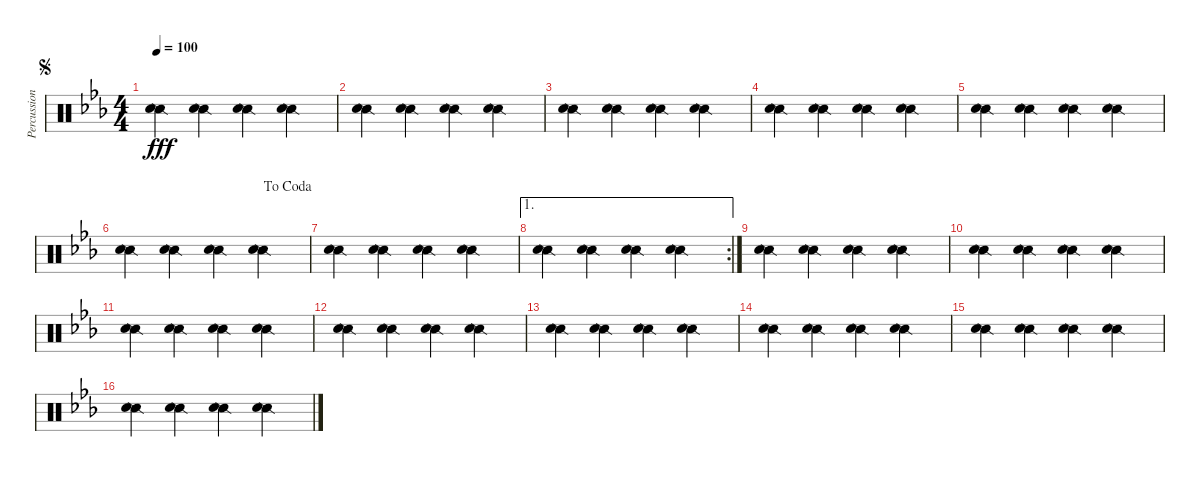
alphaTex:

\track ("Percussions" "Percussion") {instrument percussion}
\staff {score}
\articulation defaults
\ts (4 4)
\jump segno
\tempo 100
\clef neutral
\ks eb
("Snare (side stick) 2" "Snare (hit) 2").4{dy fff} ("Snare (side stick) 2" "Snare (hit) 2").4 ("Snare (side stick) 2" "Snare (hit) 2").4 ("Snare (side stick) 2" "Snare (hit) 2").4 |
("Snare (side stick) 2" "Snare (hit) 2").4 ("Snare (side stick) 2" "Snare (hit) 2").4 ("Snare (side stick) 2" "Snare (hit) 2").4 ("Snare (side stick) 2" "Snare (hit) 2").4 |
("Snare (side stick) 2" "Snare (hit) 2").4 ("Snare (side stick) 2" "Snare (hit) 2").4 ("Snare (side stick) 2" "Snare (hit) 2").4 ("Snare (side stick) 2" "Snare (hit) 2").4 |
("Snare (side stick) 2" "Snare (hit) 2").4 ("Snare (side stick) 2" "Snare (hit) 2").4 ("Snare (side stick) 2" "Snare (hit) 2").4 ("Snare (side stick) 2" "Snare (hit) 2").4 |
("Snare (side stick) 2" "Snare (hit) 2").4 ("Snare (side stick) 2" "Snare (hit) 2").4 ("Snare (side stick) 2" "Snare (hit) 2").4 ("Snare (side stick) 2" "Snare (hit) 2").4 |
\jump dacoda
("Snare (side stick) 2" "Snare (hit) 2").4 ("Snare (side stick) 2" "Snare (hit) 2").4 ("Snare (side stick) 2" "Snare (hit) 2").4 ("Snare (side stick) 2" "Snare (hit) 2").4 |
("Snare (side stick) 2" "Snare (hit) 2").4 ("Snare (side stick) 2" "Snare (hit) 2").4 ("Snare (side stick) 2" "Snare (hit) 2").4 ("Snare (side stick) 2" "Snare (hit) 2").4 |
\ae 1
\rc 2
("Snare (side stick) 2" "Snare (hit) 2").4 ("Snare (side stick) 2" "Snare (hit) 2").4 ("Snare (side stick) 2" "Snare (hit) 2").4 ("Snare (side stick) 2" "Snare (hit) 2").4 |
("Snare (side stick) 2" "Snare (hit) 2").4 ("Snare (side stick) 2" "Snare (hit) 2").4 ("Snare (side stick) 2" "Snare (hit) 2").4 ("Snare (side stick) 2" "Snare (hit) 2").4 |
("Snare (side stick) 2" "Snare (hit) 2").4 ("Snare (side stick) 2" "Snare (hit) 2").4 ("Snare (side stick) 2" "Snare (hit) 2").4 ("Snare (side stick) 2" "Snare (hit) 2").4 |
("Snare (side stick) 2" "Snare (hit) 2").4 ("Snare (side stick) 2" "Snare (hit) 2").4 ("Snare (side stick) 2" "Snare (hit) 2").4 ("Snare (side stick) 2" "Snare (hit) 2").4 |
("Snare (side stick) 2" "Snare (hit) 2").4 ("Snare (side stick) 2" "Snare (hit) 2").4 ("Snare (side stick) 2" "Snare (hit) 2").4 ("Snare (side stick) 2" "Snare (hit) 2").4 |
("Snare (side stick) 2" "Snare (hit) 2").4 ("Snare (side stick) 2" "Snare (hit) 2").4 ("Snare (side stick) 2" "Snare (hit) 2").4 ("Snare (side stick) 2" "Snare (hit) 2").4 |
("Snare (side stick) 2" "Snare (hit) 2").4 ("Snare (side stick) 2" "Snare (hit) 2").4 ("Snare (side stick) 2" "Snare (hit) 2").4 ("Snare (side stick) 2" "Snare (hit) 2").4 |
("Snare (side stick) 2" "Snare (hit) 2").4 ("Snare (side stick) 2" "Snare (hit) 2").4 ("Snare (side stick) 2" "Snare (hit) 2").4 ("Snare (side stick) 2" "Snare (hit) 2").4 |
("Snare (side stick) 2" "Snare (hit) 2").4 ("Snare (side stick) 2" "Snare (hit) 2").4 ("Snare (side stick) 2" "Snare (hit) 2").4 ("Snare (side stick) 2" "Snare (hit) 2").4
